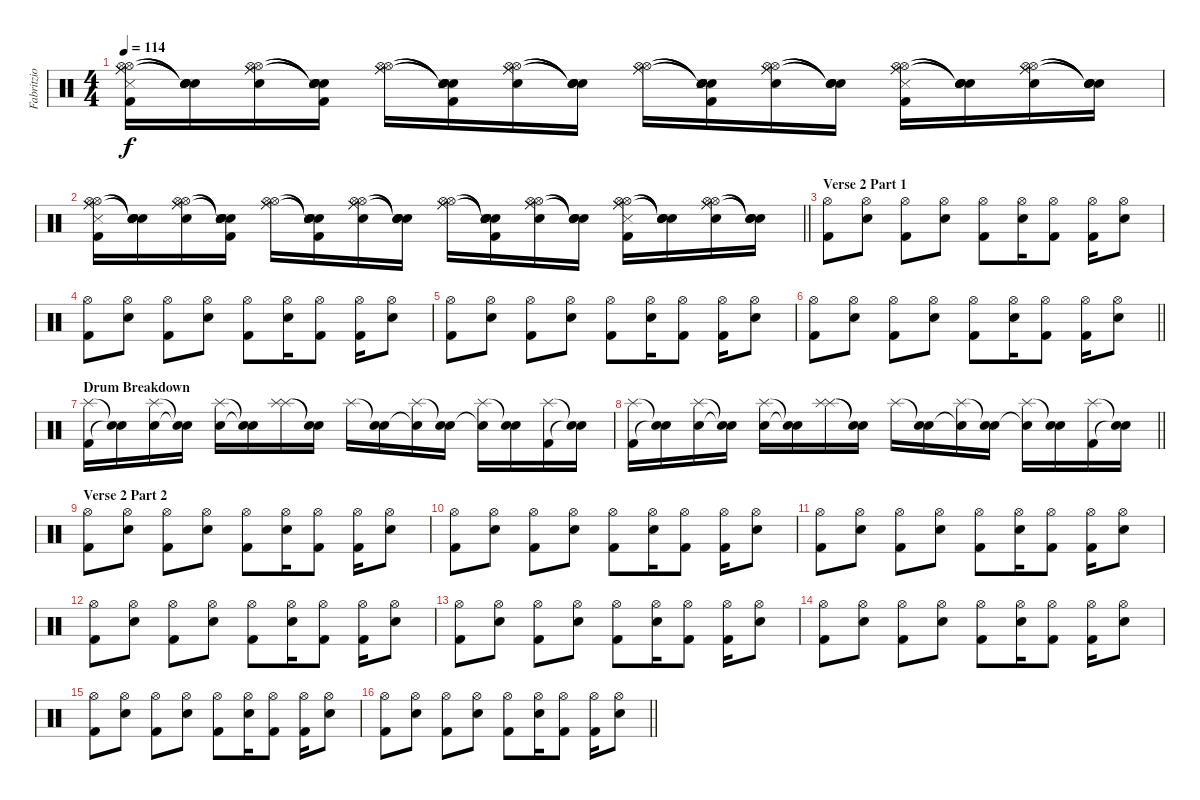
\track ("Fabritzio Moretti" "Fabritzio ") {instrument percussion}
\staff {score}
\articulation defaults
\ts (4 4)
\tempo 114
\clef neutral
\ks c
("Ride (middle)" "Hi-Hat (open)" "Hi-Hat (open)" "Ride (middle)" "Snare (side stick) 3" "Kick (hit) 2").16{dy f} ("Snare (hit)"{t} "Snare (hit)"{t} "Snare (hit)"{t} "Snare (hit)"{t}).16 ("Ride (middle)" "Hi-Hat (open)" "Hi-Hat (open)" "Ride (middle)" "Snare (hit) 2").16 ("Snare (hit)"{t} "Snare (hit)"{t} "Snare (hit)"{t} "Snare (hit)"{t} "Snare (side stick) 3" "Kick (hit) 2").16 ("Ride (middle)" "Hi-Hat (open)" "Hi-Hat (open)" "Ride (middle)").16 ("Snare (hit)"{t} "Snare (hit)"{t} "Snare (hit)"{t} "Snare (hit)"{t} "Snare (side stick) 3" "Kick (hit) 2").16 ("Ride (middle)" "Hi-Hat (open)" "Hi-Hat (open)" "Ride (middle)" "Snare (hit) 2").16 ("Snare (hit)"{t} "Snare (hit)"{t} "Snare (hit)"{t} "Snare (hit)"{t}).16 ("Ride (middle)" "Hi-Hat (open)" "Hi-Hat (open)" "Ride (middle)").16 ("Snare (hit)"{t} "Snare (hit)"{t} "Snare (hit)"{t} "Snare (hit)"{t} "Snare (side stick) 3" "Kick (hit) 2").16 ("Ride (middle)" "Hi-Hat (open)" "Hi-Hat (open)" "Ride (middle)" "Snare (hit) 2").16 ("Snare (hit)"{t} "Snare (hit)"{t} "Snare (hit)"{t} "Snare (hit)"{t}).16 ("Ride (middle)" "Hi-Hat (open)" "Hi-Hat (open)" "Ride (middle)" "Snare (side stick) 3" "Kick (hit) 2").16 ("Snare (hit)"{t} "Snare (hit)"{t} "Snare (hit)"{t} "Snare (hit)"{t}).16 ("Ride (middle)" "Hi-Hat (open)" "Hi-Hat (open)" "Ride (middle)" "Snare (hit) 2").16 ("Snare (hit)"{t} "Snare (hit)"{t} "Snare (hit)"{t} "Snare (hit)"{t}).16 |
\barLineRight lightlight
("Ride (middle)" "Hi-Hat (open)" "Hi-Hat (open)" "Ride (middle)" "Snare (side stick) 3" "Kick (hit) 2").16 ("Snare (hit)"{t} "Snare (hit)"{t} "Snare (hit)"{t} "Snare (hit)"{t}).16 ("Ride (middle)" "Hi-Hat (open)" "Hi-Hat (open)" "Ride (middle)" "Snare (hit) 2").16 ("Snare (hit)"{t} "Snare (hit)"{t} "Snare (hit)"{t} "Snare (hit)"{t} "Snare (side stick) 3" "Kick (hit) 2").16 ("Ride (middle)" "Hi-Hat (open)" "Hi-Hat (open)" "Ride (middle)").16 ("Snare (hit)"{t} "Snare (hit)"{t} "Snare (hit)"{t} "Snare (hit)"{t} "Snare (side stick) 3" "Kick (hit) 2").16 ("Ride (middle)" "Hi-Hat (open)" "Hi-Hat (open)" "Ride (middle)" "Snare (hit) 2").16 ("Snare (hit)"{t} "Snare (hit)"{t} "Snare (hit)"{t} "Snare (hit)"{t}).16 ("Ride (middle)" "Hi-Hat (open)" "Hi-Hat (open)" "Ride (middle)").16 ("Snare (hit)"{t} "Snare (hit)"{t} "Snare (hit)"{t} "Snare (hit)"{t} "Snare (side stick) 3" "Kick (hit) 2").16 ("Ride (middle)" "Hi-Hat (open)" "Hi-Hat (open)" "Ride (middle)" "Snare (hit) 2").16 ("Snare (hit)"{t} "Snare (hit)"{t} "Snare (hit)"{t} "Snare (hit)"{t}).16 ("Ride (middle)" "Hi-Hat (open)" "Hi-Hat (open)" "Ride (middle)" "Snare (side stick) 3" "Kick (hit) 2").16 ("Snare (hit)"{t} "Snare (hit)"{t} "Snare (hit)"{t} "Snare (hit)"{t}).16 ("Ride (middle)" "Hi-Hat (open)" "Hi-Hat (open)" "Ride (middle)" "Snare (hit) 2").16 ("Snare (hit)"{t} "Snare (hit)"{t} "Snare (hit)"{t} "Snare (hit)"{t}).16 |
\section ("" "Verse 2 Part 1")
("Hi-Hat (open)" "Kick (hit) 2").8 ("Hi-Hat (open)" "Snare (hit) 2").8 ("Hi-Hat (open)" "Kick (hit) 2").8 ("Hi-Hat (open)" "Snare (hit) 2").8 ("Hi-Hat (open)" "Kick (hit) 2").8 ("Hi-Hat (open)" "Snare (hit) 2").16 ("Hi-Hat (open)" "Kick (hit) 2").8 ("Hi-Hat (open)" "Kick (hit) 2").16 ("Hi-Hat (open)" "Snare (hit) 2").8 |
("Hi-Hat (open)" "Kick (hit) 2").8 ("Hi-Hat (open)" "Snare (hit) 2").8 ("Hi-Hat (open)" "Kick (hit) 2").8 ("Hi-Hat (open)" "Snare (hit) 2").8 ("Hi-Hat (open)" "Kick (hit) 2").8 ("Hi-Hat (open)" "Snare (hit) 2").16 ("Hi-Hat (open)" "Kick (hit) 2").8 ("Hi-Hat (open)" "Kick (hit) 2").16 ("Hi-Hat (open)" "Snare (hit) 2").8 |
("Hi-Hat (open)" "Kick (hit) 2").8 ("Hi-Hat (open)" "Snare (hit) 2").8 ("Hi-Hat (open)" "Kick (hit) 2").8 ("Hi-Hat (open)" "Snare (hit) 2").8 ("Hi-Hat (open)" "Kick (hit) 2").8 ("Hi-Hat (open)" "Snare (hit) 2").16 ("Hi-Hat (open)" "Kick (hit) 2").8 ("Hi-Hat (open)" "Kick (hit) 2").16 ("Hi-Hat (open)" "Snare (hit) 2").8 |
\barLineRight lightlight
("Hi-Hat (open)" "Kick (hit) 2").8 ("Hi-Hat (open)" "Snare (hit) 2").8 ("Hi-Hat (open)" "Kick (hit) 2").8 ("Hi-Hat (open)" "Snare (hit) 2").8 ("Hi-Hat (open)" "Kick (hit) 2").8 ("Hi-Hat (open)" "Snare (hit) 2").16 ("Hi-Hat (open)" "Kick (hit) 2").8 ("Hi-Hat (open)" "Kick (hit) 2").16 ("Hi-Hat (open)" "Snare (hit) 2").8 |
\section ("" "Drum Breakdown")
("Splash (hit)" "Kick (hit) 2").16 ("Snare (hit)"{t} "Snare (hit)"{t}).16 ("Splash (hit)" "Snare (hit) 2").16 ("Snare (hit)"{t} "Snare (hit) 2"{t}).16 ("Splash (hit)" "Snare (hit) 2").16 ("Snare (hit)"{t} "Snare (hit)"{t}).16 ("Splash (hit)" "Splash (hit)").16 ("Snare (hit)"{t} "Snare (hit)"{t}).16 "Splash (hit)".16 ("Snare (hit)"{t} "Snare (hit) 2").16 ("Splash (hit)" "Snare (hit)"{t}).16 ("Snare (hit)"{t} "Snare (hit) 2").16 ("Splash (hit)" "Snare (hit)"{t}).16 ("Snare (hit)"{t} "Snare (hit) 2").16 ("Splash (hit)" "Kick (hit) 2").16 ("Snare (hit)"{t} "Snare (hit)"{t}).16 |
\barLineRight lightlight
("Splash (hit)" "Kick (hit) 2").16 ("Snare (hit)"{t} "Snare (hit)"{t}).16 ("Splash (hit)" "Snare (hit) 2").16 ("Snare (hit)"{t} "Snare (hit) 2"{t}).16 ("Splash (hit)" "Snare (hit) 2").16 ("Snare (hit)"{t} "Snare (hit)"{t}).16 ("Splash (hit)" "Splash (hit)").16 ("Snare (hit)"{t} "Snare (hit)"{t}).16 "Splash (hit)".16 ("Snare (hit)"{t} "Snare (hit) 2").16 ("Splash (hit)" "Snare (hit)"{t}).16 ("Snare (hit)"{t} "Snare (hit) 2").16 ("Splash (hit)" "Snare (hit)"{t}).16 ("Snare (hit)"{t} "Snare (hit) 2").16 ("Splash (hit)" "Kick (hit) 2").16 ("Snare (hit)"{t} "Snare (hit)"{t}).16 |
\section ("" "Verse 2 Part 2")
("Hi-Hat (open)" "Kick (hit) 2").8 ("Hi-Hat (open)" "Snare (hit) 2").8 ("Hi-Hat (open)" "Kick (hit) 2").8 ("Hi-Hat (open)" "Snare (hit) 2").8 ("Hi-Hat (open)" "Kick (hit) 2").8 ("Hi-Hat (open)" "Snare (hit) 2").16 ("Hi-Hat (open)" "Kick (hit) 2").8 ("Hi-Hat (open)" "Kick (hit) 2").16 ("Hi-Hat (open)" "Snare (hit) 2").8 |
("Hi-Hat (open)" "Kick (hit) 2").8 ("Hi-Hat (open)" "Snare (hit) 2").8 ("Hi-Hat (open)" "Kick (hit) 2").8 ("Hi-Hat (open)" "Snare (hit) 2").8 ("Hi-Hat (open)" "Kick (hit) 2").8 ("Hi-Hat (open)" "Snare (hit) 2").16 ("Hi-Hat (open)" "Kick (hit) 2").8 ("Hi-Hat (open)" "Kick (hit) 2").16 ("Hi-Hat (open)" "Snare (hit) 2").8 |
("Hi-Hat (open)" "Kick (hit) 2").8 ("Hi-Hat (open)" "Snare (hit) 2").8 ("Hi-Hat (open)" "Kick (hit) 2").8 ("Hi-Hat (open)" "Snare (hit) 2").8 ("Hi-Hat (open)" "Kick (hit) 2").8 ("Hi-Hat (open)" "Snare (hit) 2").16 ("Hi-Hat (open)" "Kick (hit) 2").8 ("Hi-Hat (open)" "Kick (hit) 2").16 ("Hi-Hat (open)" "Snare (hit) 2").8 |
("Hi-Hat (open)" "Kick (hit) 2").8 ("Hi-Hat (open)" "Snare (hit) 2").8 ("Hi-Hat (open)" "Kick (hit) 2").8 ("Hi-Hat (open)" "Snare (hit) 2").8 ("Hi-Hat (open)" "Kick (hit) 2").8 ("Hi-Hat (open)" "Snare (hit) 2").16 ("Hi-Hat (open)" "Kick (hit) 2").8 ("Hi-Hat (open)" "Kick (hit) 2").16 ("Hi-Hat (open)" "Snare (hit) 2").8 |
("Hi-Hat (open)" "Kick (hit) 2").8 ("Hi-Hat (open)" "Snare (hit) 2").8 ("Hi-Hat (open)" "Kick (hit) 2").8 ("Hi-Hat (open)" "Snare (hit) 2").8 ("Hi-Hat (open)" "Kick (hit) 2").8 ("Hi-Hat (open)" "Snare (hit) 2").16 ("Hi-Hat (open)" "Kick (hit) 2").8 ("Hi-Hat (open)" "Kick (hit) 2").16 ("Hi-Hat (open)" "Snare (hit) 2").8 |
("Hi-Hat (open)" "Kick (hit) 2").8 ("Hi-Hat (open)" "Snare (hit) 2").8 ("Hi-Hat (open)" "Kick (hit) 2").8 ("Hi-Hat (open)" "Snare (hit) 2").8 ("Hi-Hat (open)" "Kick (hit) 2").8 ("Hi-Hat (open)" "Snare (hit) 2").16 ("Hi-Hat (open)" "Kick (hit) 2").8 ("Hi-Hat (open)" "Kick (hit) 2").16 ("Hi-Hat (open)" "Snare (hit) 2").8 |
("Hi-Hat (open)" "Kick (hit) 2").8 ("Hi-Hat (open)" "Snare (hit) 2").8 ("Hi-Hat (open)" "Kick (hit) 2").8 ("Hi-Hat (open)" "Snare (hit) 2").8 ("Hi-Hat (open)" "Kick (hit) 2").8 ("Hi-Hat (open)" "Snare (hit) 2").16 ("Hi-Hat (open)" "Kick (hit) 2").8 ("Hi-Hat (open)" "Kick (hit) 2").16 ("Hi-Hat (open)" "Snare (hit) 2").8 |
\barLineRight lightlight
("Hi-Hat (open)" "Kick (hit) 2").8 ("Hi-Hat (open)" "Snare (hit) 2").8 ("Hi-Hat (open)" "Kick (hit) 2").8 ("Hi-Hat (open)" "Snare (hit) 2").8 ("Hi-Hat (open)" "Kick (hit) 2").8 ("Hi-Hat (open)" "Snare (hit) 2").16 ("Hi-Hat (open)" "Kick (hit) 2").8 ("Hi-Hat (open)" "Kick (hit) 2").16 ("Hi-Hat (open)" "Snare (hit) 2").8
